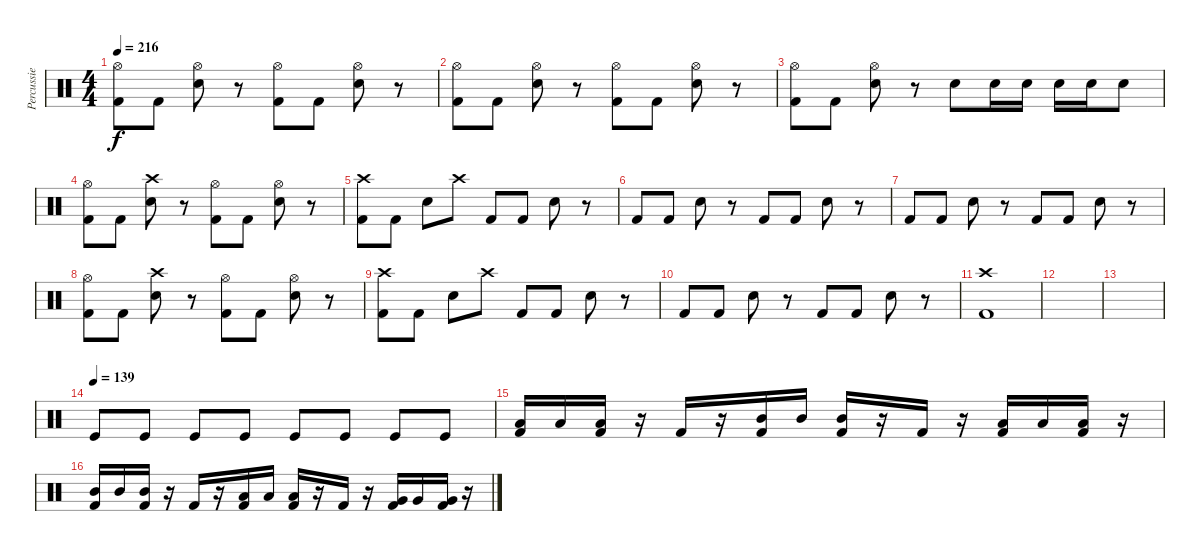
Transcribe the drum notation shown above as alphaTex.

\track ("Percussie" "Percussie") {instrument percussion}
\staff {score}
\articulation defaults
\ts (4 4)
\tempo 216
\clef neutral
\ks c
("Hi-Hat (open)" "Kick (hit) 2").8{dy f} "Kick (hit) 2".8 ("Hi-Hat (open)" "Snare (hit) 2").8 r.8 ("Hi-Hat (open)" "Kick (hit) 2").8 "Kick (hit) 2".8 ("Hi-Hat (open)" "Snare (hit) 2").8 r.8 |
("Hi-Hat (open)" "Kick (hit) 2").8 "Kick (hit) 2".8 ("Hi-Hat (open)" "Snare (hit) 2").8 r.8 ("Hi-Hat (open)" "Kick (hit) 2").8 "Kick (hit) 2".8 ("Hi-Hat (open)" "Snare (hit) 2").8 r.8 |
("Hi-Hat (open)" "Kick (hit) 2").8 "Kick (hit) 2".8 ("Hi-Hat (open)" "Snare (hit) 2").8 r.8 "Snare (hit) 2".8 "Snare (hit) 2".16 "Snare (hit) 2".16 "Snare (hit) 2".16 "Snare (hit) 2".16 "Snare (hit) 2".8 |
("Hi-Hat (open)" "Kick (hit) 2").8 "Kick (hit) 2".8 ("Crash high (hit)" "Snare (hit) 2").8 r.8 ("Hi-Hat (open)" "Kick (hit) 2").8 "Kick (hit) 2".8 ("Hi-Hat (open)" "Snare (hit) 2").8 r.8 |
("Crash high (hit)" "Kick (hit) 2").8 "Kick (hit) 2".8 "Snare (hit) 2".8 "Crash high (hit)".8 "Kick (hit) 2".8 "Kick (hit) 2".8 "Snare (hit) 2".8 r.8 |
"Kick (hit) 2".8 "Kick (hit) 2".8 "Snare (hit) 2".8 r.8 "Kick (hit) 2".8 "Kick (hit) 2".8 "Snare (hit) 2".8 r.8 |
"Kick (hit) 2".8 "Kick (hit) 2".8 "Snare (hit) 2".8 r.8 "Kick (hit) 2".8 "Kick (hit) 2".8 "Snare (hit) 2".8 r.8 |
("Hi-Hat (open)" "Kick (hit) 2").8 "Kick (hit) 2".8 ("Crash high (hit)" "Snare (hit) 2").8 r.8 ("Hi-Hat (open)" "Kick (hit) 2").8 "Kick (hit) 2".8 ("Hi-Hat (open)" "Snare (hit) 2").8 r.8 |
("Crash high (hit)" "Kick (hit) 2").8 "Kick (hit) 2".8 "Snare (hit) 2".8 "Crash high (hit)".8 "Kick (hit) 2".8 "Kick (hit) 2".8 "Snare (hit) 2".8 r.8 |
"Kick (hit) 2".8 "Kick (hit) 2".8 "Snare (hit) 2".8 r.8 "Kick (hit) 2".8 "Kick (hit) 2".8 "Snare (hit) 2".8 r.8 |
("Crash high (hit)" "Kick (hit) 2").1 |
|
|
\tempo (139)
"Kick (hit)".8 "Kick (hit)".8 "Kick (hit)".8 "Kick (hit)".8 "Kick (hit)".8 "Kick (hit)".8 "Kick (hit)".8 "Kick (hit)".8 |
("Low Tom (hit)" "Kick (hit) 2").16 "Low Tom (hit)".16 ("Low Tom (hit)" "Kick (hit) 2").16 r.16 "Kick (hit) 2".16 r.16 ("Mid Tom (hit)" "Kick (hit) 2").16 "Mid Tom (hit)".16 ("Mid Tom (hit)" "Kick (hit) 2").16 r.16 "Kick (hit) 2".16 r.16 ("Low Tom (hit)" "Kick (hit) 2").16 "Low Tom (hit)".16 ("Low Tom (hit)" "Kick (hit) 2").16 r.16 |
("Mid Tom (hit)" "Kick (hit) 2").16 "Mid Tom (hit)".16 ("Mid Tom (hit)" "Kick (hit) 2").16 r.16 "Kick (hit) 2".16 r.16 ("Low Tom (hit)" "Kick (hit) 2").16 "Low Tom (hit)".16 ("Low Tom (hit)" "Kick (hit) 2").16 r.16 "Kick (hit) 2".16 r.16 ("Very Low Tom (hit)" "Kick (hit) 2").16 "Very Low Tom (hit)".16 ("Very Low Tom (hit)" "Kick (hit) 2").16 r.16
